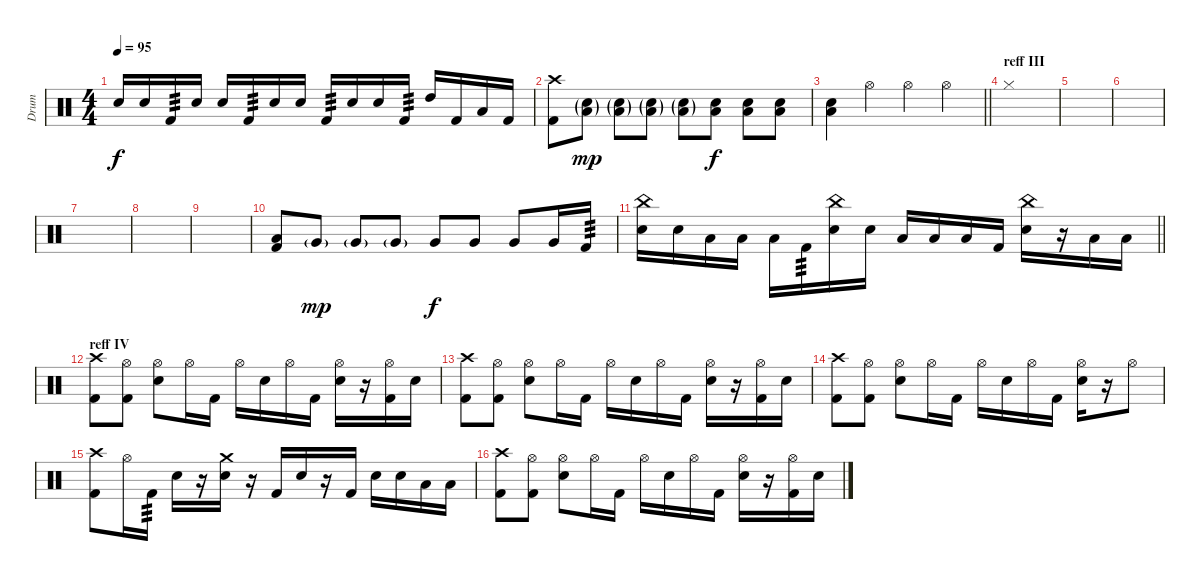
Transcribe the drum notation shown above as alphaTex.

\track ("Drum" "Drum") {instrument percussion}
\staff {score}
\articulation defaults
\ts (4 4)
\tempo 95
\clef neutral
\ks c "Snare (hit) 2".16{dy f} "Snare (hit) 2".16 "Kick (hit) 2".16{tp 3} "Snare (hit) 2".16 "Snare (hit) 2".16 "Kick (hit) 2".16{tp 3} "Snare (hit) 2".16 "Snare (hit) 2".16 "Kick (hit) 2".16{tp 3} "Snare (hit) 2".16 "Snare (hit) 2".16 "Kick (hit) 2".16{tp 3} "High Tom (hit)".16 "Kick (hit) 2".16 "Low Tom (hit)".16 "Kick (hit) 2".16
|
("Crash high (hit)" "Kick (hit) 2").8 ("Snare (hit) 2"{g} "Low Floor Tom (hit)"{g}).8{dy mp} ("Snare (hit) 2"{g} "Low Floor Tom (hit)"{g}).8 ("Snare (hit) 2"{g} "Low Floor Tom (hit)"{g}).8 ("Snare (hit) 2"{g} "Low Floor Tom (hit)"{g}).8 ("Snare (hit) 2" "Low Floor Tom (hit)").8{dy f} ("Snare (hit) 2" "Low Floor Tom (hit)").8 ("Snare (hit) 2" "Low Floor Tom (hit)").8 |
\barLineRight lightlight
("Snare (hit) 2" "Low Floor Tom (hit)").4 "Hi-Hat (open)".4 "Hi-Hat (open)".4 "Hi-Hat (open)".4 |
\section ("" "reff III")
"Hi-Hat (closed)".1 |
|
|
|
|
|
("Low Floor Tom (hit)" "Kick (hit) 2").8 "Very Low Tom (hit)"{g}.8{dy mp} "Very Low Tom (hit)"{g}.8 "Very Low Tom (hit)"{g}.8 "Very Low Tom (hit)".8{dy f} "Very Low Tom (hit)".8 "Very Low Tom (hit)".8 "Very Low Tom (hit)".16 "Kick (hit) 2".16{tp 3} |
\barLineRight lightlight
("China (hit)" "Snare (hit) 2").16 "Snare (hit) 2".16 "Low Tom (hit)".16 "Low Tom (hit)".16 "Low Tom (hit)".16 "Kick (hit) 2".16{tp 3} ("China (hit)" "Snare (hit) 2").16 "Snare (hit) 2".16 "Low Tom (hit)".16 "Low Tom (hit)".16 "Low Tom (hit)".16 "Kick (hit) 2".16 ("China (hit)" "Snare (hit) 2").16 r.16 "Low Tom (hit)".16 "Low Tom (hit)".16 |
\section ("" "reff IV")
("Crash high (hit)" "Kick (hit) 2").8 ("Hi-Hat (open)" "Kick (hit) 2").8 ("Hi-Hat (open)" "Snare (hit) 2").8 "Hi-Hat (open)".16 "Kick (hit) 2".16 "Hi-Hat (open)".16 "Snare (hit) 2".16 "Hi-Hat (open)".16 "Kick (hit) 2".16 ("Hi-Hat (open)" "Snare (hit) 2").16 r.16 ("Hi-Hat (open)" "Kick (hit) 2").16 "Snare (hit) 2".16 |
("Crash high (hit)" "Kick (hit) 2").8 ("Hi-Hat (open)" "Kick (hit) 2").8 ("Hi-Hat (open)" "Snare (hit) 2").8 "Hi-Hat (open)".16 "Kick (hit) 2".16 "Hi-Hat (open)".16 "Snare (hit) 2".16 "Hi-Hat (open)".16 "Kick (hit) 2".16 ("Hi-Hat (open)" "Snare (hit) 2").16 r.16 ("Hi-Hat (open)" "Kick (hit) 2").16 "Snare (hit) 2".16 |
("Crash high (hit)" "Kick (hit) 2").8 ("Hi-Hat (open)" "Kick (hit) 2").8 ("Hi-Hat (open)" "Snare (hit) 2").8 "Hi-Hat (open)".16 "Kick (hit) 2".16 "Hi-Hat (open)".16 "Snare (hit) 2".16 "Hi-Hat (open)".16 "Kick (hit) 2".16 ("Hi-Hat (open)" "Snare (hit) 2").16 r.16 "Hi-Hat (open)".8 |
("Crash high (hit)" "Kick (hit) 2").8 "Hi-Hat (open)".16 "Kick (hit) 2".16{tp 3} "Snare (hit) 2".16 r.16 ("Crash medium (hit)" "Snare (hit) 2").16 r.16 "Kick (hit) 2".16 "Snare (hit) 2".16 r.16 "Kick (hit) 2".16 "Snare (hit) 2".16 "Snare (hit) 2".16 "Low Tom (hit)".16 "Low Tom (hit)".16 |
("Crash high (hit)" "Kick (hit) 2").8 ("Hi-Hat (open)" "Kick (hit) 2").8 ("Hi-Hat (open)" "Snare (hit) 2").8 "Hi-Hat (open)".16 "Kick (hit) 2".16 "Hi-Hat (open)".16 "Snare (hit) 2".16 "Hi-Hat (open)".16 "Kick (hit) 2".16 ("Hi-Hat (open)" "Snare (hit) 2").16 r.16 ("Hi-Hat (open)" "Kick (hit) 2").16 "Snare (hit) 2".16
